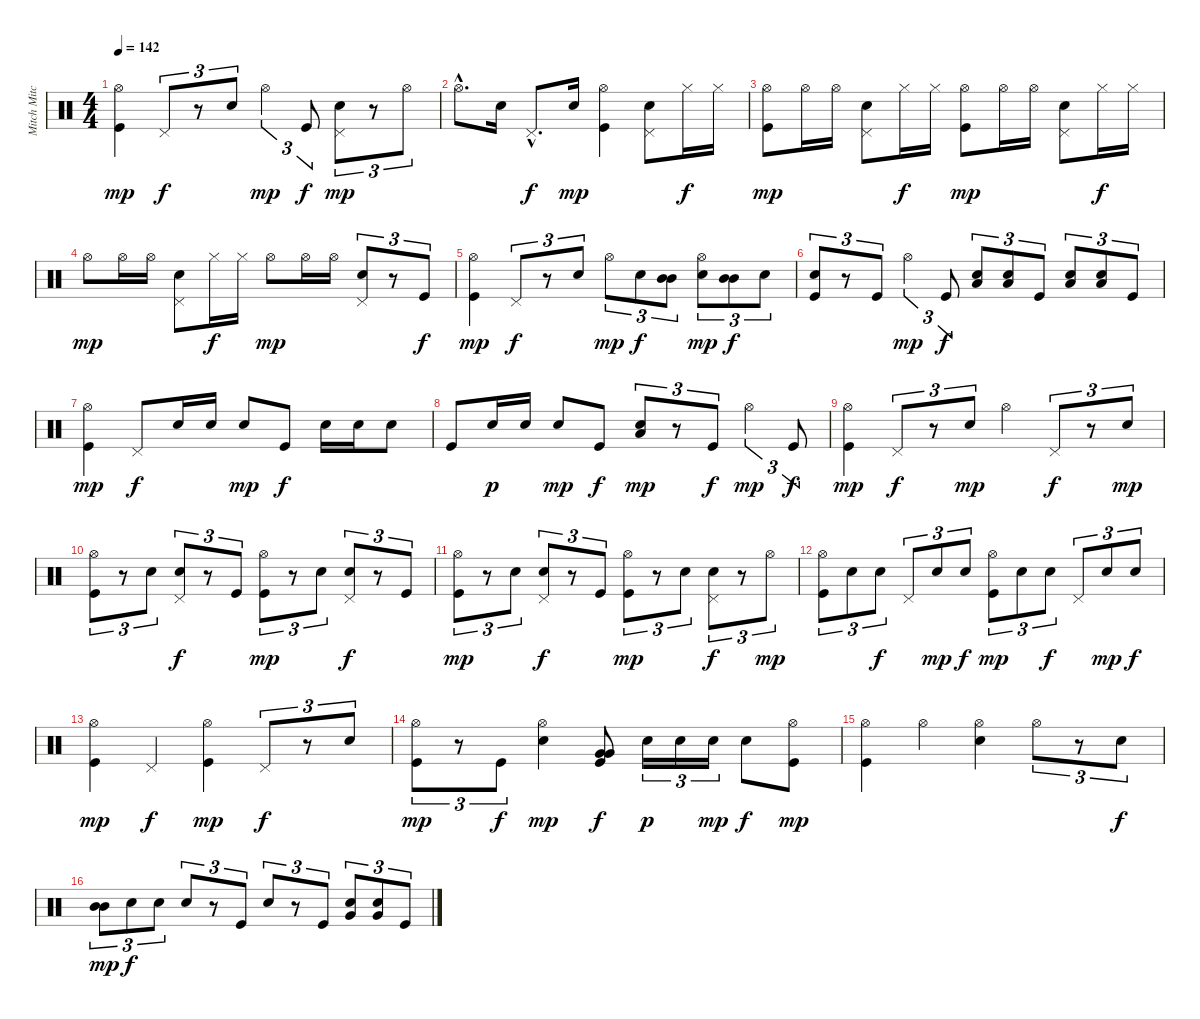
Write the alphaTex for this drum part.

\track ("Mitch Mitchell" "Mitch Mitc") {instrument percussion}
\staff {score}
\articulation defaults
\ts (4 4)
\tempo 142
\clef neutral
\ks c
("Hi-Hat (open)" "Kick (hit)").4{dy mp} "Pedal Hi-Hat (hit)".8{tu (3 2) dy f} r.8{tu (3 2)} "Electric Snare (hit)".8{tu (3 2)} "Hi-Hat (open)".4{tu (3 2) dy mp} "Kick (hit)".8{tu (3 2) dy f} ("Pedal Hi-Hat (hit)" "Electric Snare (hit)").8{tu (3 2) dy mp} r.8{tu (3 2)} "Hi-Hat (open)".8{tu (3 2)} |
"Hi-Hat (open)"{hac}.8{d} "Electric Snare (hit)".16 "Pedal Hi-Hat (hit)"{hac}.8{d dy f} "Electric Snare (hit)".16{dy mp} ("Hi-Hat (open)" "Kick (hit)").4 ("Pedal Hi-Hat (hit)" "Electric Snare (hit)").8 "Hi-Hat (closed)".16{dy f} "Hi-Hat (closed)".16 |
("Hi-Hat (open)" "Kick (hit)").8{dy mp} "Hi-Hat (open)".16 "Hi-Hat (open)".16 ("Pedal Hi-Hat (hit)" "Electric Snare (hit)").8 "Hi-Hat (closed)".16{dy f} "Hi-Hat (closed)".16 ("Hi-Hat (open)" "Kick (hit)").8{dy mp} "Hi-Hat (open)".16 "Hi-Hat (open)".16 ("Pedal Hi-Hat (hit)" "Electric Snare (hit)").8 "Hi-Hat (closed)".16{dy f} "Hi-Hat (closed)".16 |
"Hi-Hat (open)".8{dy mp} "Hi-Hat (open)".16 "Hi-Hat (open)".16 ("Pedal Hi-Hat (hit)" "Electric Snare (hit)").8 "Hi-Hat (closed)".16{dy f} "Hi-Hat (closed)".16 "Hi-Hat (open)".8{dy mp} "Hi-Hat (open)".16 "Hi-Hat (open)".16 ("Pedal Hi-Hat (hit)" "Electric Snare (hit)").8{tu (3 2)} r.8{tu (3 2)} "Kick (hit)".8{tu (3 2) dy f} |
("Hi-Hat (open)" "Kick (hit)").4{dy mp} "Pedal Hi-Hat (hit)".8{tu (3 2) dy f} r.8{tu (3 2)} "Electric Snare (hit)".8{tu (3 2)} "Hi-Hat (open)".8{tu (3 2) dy mp} "Electric Snare (hit)".8{tu (3 2) dy f} ("Mid Tom (hit)" "Mid Tom (hit)").8{tu (3 2)} ("Hi-Hat (open)" "Electric Snare (hit)").8{tu (3 2) dy mp} ("Mid Tom (hit)" "Mid Tom (hit)").8{tu (3 2) dy f} "Electric Snare (hit)".8{tu (3 2)} |
("Electric Snare (hit)" "Kick (hit)").8{tu (3 2)} r.8{tu (3 2)} "Kick (hit)".8{tu (3 2)} "Hi-Hat (open)".4{tu (3 2) dy mp} "Kick (hit)".8{tu (3 2) dy f} ("Low Tom (hit)" "Electric Snare (hit)").8{tu (3 2)} ("Low Tom (hit)" "Electric Snare (hit)").8{tu (3 2)} "Kick (hit)".8{tu (3 2)} ("Low Tom (hit)" "Electric Snare (hit)").8{tu (3 2)} ("Low Tom (hit)" "Electric Snare (hit)").8{tu (3 2)} "Kick (hit)".8{tu (3 2)} |
("Hi-Hat (open)" "Kick (hit)").4{dy mp} "Pedal Hi-Hat (hit)".8{dy f} "Electric Snare (hit)".16 "Electric Snare (hit)".16 "Electric Snare (hit)".8{dy mp} "Kick (hit)".8{dy f} "Electric Snare (hit)".16 "Electric Snare (hit)".16 "Electric Snare (hit)".8 |
"Kick (hit)".8 "Electric Snare (hit)".16{dy p} "Electric Snare (hit)".16 "Electric Snare (hit)".8{dy mp} "Kick (hit)".8{dy f} ("Low Tom (hit)" "Electric Snare (hit)").8{tu (3 2) dy mp} r.8{tu (3 2)} "Kick (hit)".8{tu (3 2) dy f} "Hi-Hat (open)".4{tu (3 2) dy mp} "Kick (hit)".8{tu (3 2) dy f} |
("Hi-Hat (open)" "Kick (hit)").4{dy mp} "Pedal Hi-Hat (hit)".8{tu (3 2) dy f} r.8{tu (3 2)} "Electric Snare (hit)".8{tu (3 2) dy mp} "Hi-Hat (open)".4 "Pedal Hi-Hat (hit)".8{tu (3 2) dy f} r.8{tu (3 2)} "Electric Snare (hit)".8{tu (3 2) dy mp} |
("Hi-Hat (open)" "Kick (hit)").8{tu (3 2)} r.8{tu (3 2)} "Electric Snare (hit)".8{tu (3 2)} ("Pedal Hi-Hat (hit)" "Electric Snare (hit)").8{tu (3 2) dy f} r.8{tu (3 2)} "Kick (hit)".8{tu (3 2)} ("Hi-Hat (open)" "Kick (hit)").8{tu (3 2) dy mp} r.8{tu (3 2)} "Electric Snare (hit)".8{tu (3 2)} ("Pedal Hi-Hat (hit)" "Electric Snare (hit)").8{tu (3 2) dy f} r.8{tu (3 2)} "Kick (hit)".8{tu (3 2)} |
("Hi-Hat (open)" "Kick (hit)").8{tu (3 2) dy mp} r.8{tu (3 2)} "Electric Snare (hit)".8{tu (3 2)} ("Pedal Hi-Hat (hit)" "Electric Snare (hit)").8{tu (3 2) dy f} r.8{tu (3 2)} "Kick (hit)".8{tu (3 2)} ("Hi-Hat (open)" "Kick (hit)").8{tu (3 2) dy mp} r.8{tu (3 2)} "Electric Snare (hit)".8{tu (3 2)} ("Pedal Hi-Hat (hit)" "Electric Snare (hit)").8{tu (3 2) dy f} r.8{tu (3 2)} "Hi-Hat (open)".8{tu (3 2) dy mp} |
("Hi-Hat (open)" "Kick (hit)").8{tu (3 2)} "Electric Snare (hit)".8{tu (3 2)} "Electric Snare (hit)".8{tu (3 2) dy f} "Pedal Hi-Hat (hit)".8{tu (3 2)} "Electric Snare (hit)".8{tu (3 2) dy mp} "Electric Snare (hit)".8{tu (3 2) dy f} ("Hi-Hat (open)" "Kick (hit)").8{tu (3 2) dy mp} "Electric Snare (hit)".8{tu (3 2)} "Electric Snare (hit)".8{tu (3 2) dy f} "Pedal Hi-Hat (hit)".8{tu (3 2)} "Electric Snare (hit)".8{tu (3 2) dy mp} "Electric Snare (hit)".8{tu (3 2) dy f} |
("Hi-Hat (open)" "Kick (hit)").4{dy mp} "Pedal Hi-Hat (hit)".4{dy f} ("Hi-Hat (open)" "Kick (hit)").4{dy mp} "Pedal Hi-Hat (hit)".8{tu (3 2) dy f} r.8{tu (3 2)} "Electric Snare (hit)".8{tu (3 2)} |
("Hi-Hat (open)" "Kick (hit)").8{tu (3 2) dy mp} r.8{tu (3 2)} "Kick (hit)".8{tu (3 2) dy f} ("Hi-Hat (open)" "Electric Snare (hit)").4{dy mp} ("Very Low Tom (hit)" "Very Low Tom (hit)" "Kick (hit)").8{dy f} "Electric Snare (hit)".16{tu (3 2) dy p} "Electric Snare (hit)".16{tu (3 2)} "Electric Snare (hit)".16{tu (3 2) dy mp} "Electric Snare (hit)".8{dy f} ("Hi-Hat (open)" "Kick (hit)").8{dy mp} |
("Hi-Hat (open)" "Kick (hit)").4 "Hi-Hat (open)".4 ("Hi-Hat (open)" "Electric Snare (hit)").4 "Hi-Hat (open)".8{tu (3 2)} r.8{tu (3 2)} "Electric Snare (hit)".8{tu (3 2) dy f} |
("Mid Tom (hit)" "Mid Tom (hit)").8{tu (3 2) dy mp} "Electric Snare (hit)".8{tu (3 2) dy f} "Electric Snare (hit)".8{tu (3 2)} "Electric Snare (hit)".8{tu (3 2)} r.8{tu (3 2)} "Kick (hit)".8{tu (3 2)} "Electric Snare (hit)".8{tu (3 2)} r.8{tu (3 2)} "Kick (hit)".8{tu (3 2)} ("Electric Snare (hit)" "Very Low Tom (hit)").8{tu (3 2)} ("Electric Snare (hit)" "Very Low Tom (hit)").8{tu (3 2)} "Kick (hit)".8{tu (3 2)}
